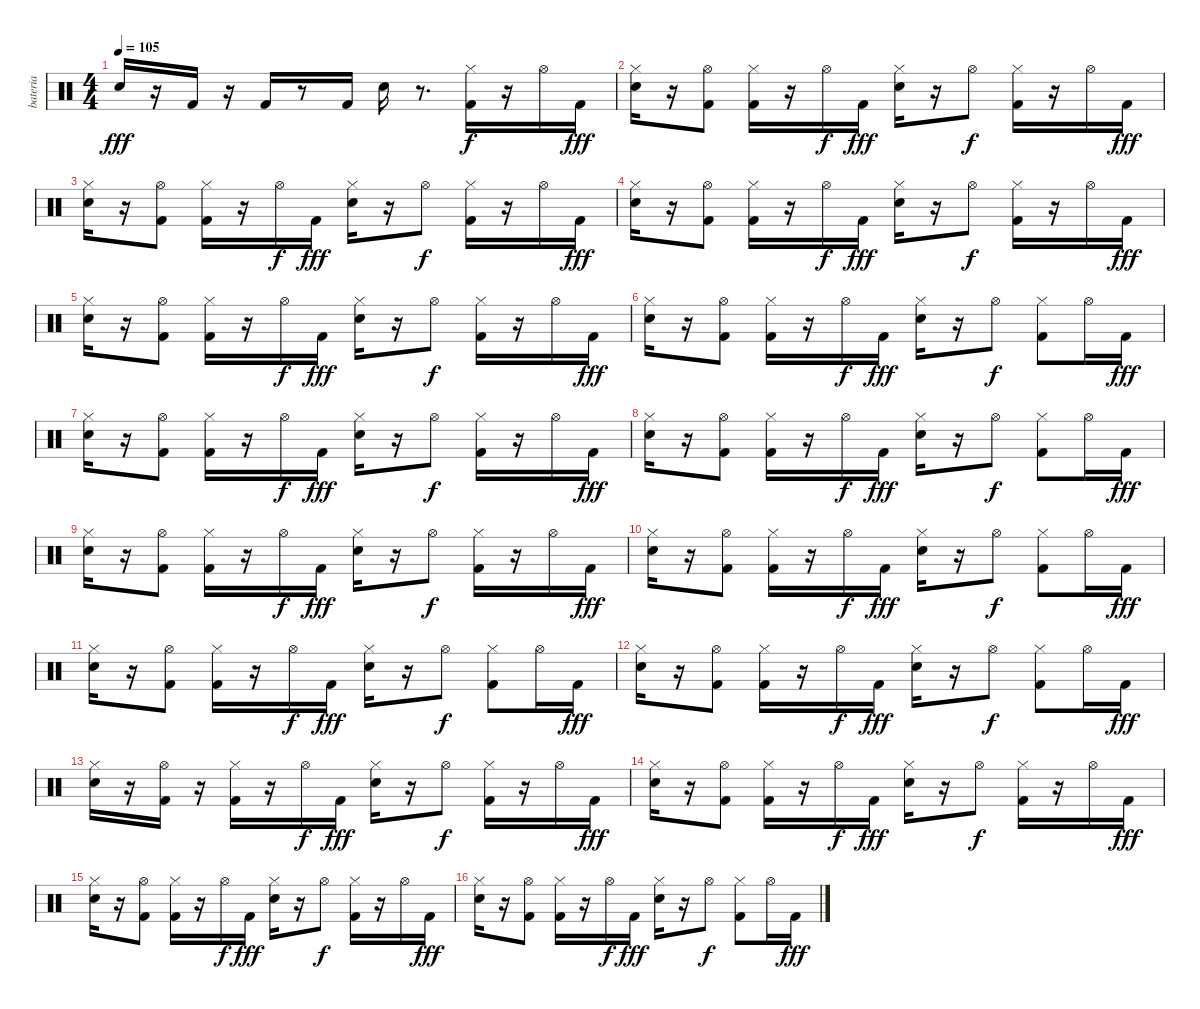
\track ("bateria" "bateria") {instrument percussion}
\staff {score}
\articulation defaults
\ts (4 4)
\tempo 105
\clef neutral
\ks c "Snare (hit) 2".16{dy fff}
r.16 "Kick (hit) 2".16 r.16 "Kick (hit) 2".16 r.8 "Kick (hit) 2".16 "Snare (hit) 2".16 r.8{d} ("Hi-Hat (closed)" "Kick (hit) 2").16{dy f} r.16 "Hi-Hat (open)".16 "Kick (hit) 2".16{dy fff} |
("Snare (hit) 2" "Hi-Hat (closed)").16 r.16 ("Kick (hit) 2" "Hi-Hat (open)").8 ("Kick (hit) 2" "Hi-Hat (closed)").16 r.16 "Hi-Hat (open)".16{dy f} "Kick (hit) 2".16{dy fff} ("Snare (hit) 2" "Hi-Hat (closed)").16 r.16 "Hi-Hat (open)".8{dy f} ("Hi-Hat (closed)" "Kick (hit) 2").16 r.16 "Hi-Hat (open)".16 "Kick (hit) 2".16{dy fff} |
("Snare (hit) 2" "Hi-Hat (closed)").16 r.16 ("Kick (hit) 2" "Hi-Hat (open)").8 ("Kick (hit) 2" "Hi-Hat (closed)").16 r.16 "Hi-Hat (open)".16{dy f} "Kick (hit) 2".16{dy fff} ("Snare (hit) 2" "Hi-Hat (closed)").16 r.16 "Hi-Hat (open)".8{dy f} ("Hi-Hat (closed)" "Kick (hit) 2").16 r.16 "Hi-Hat (open)".16 "Kick (hit) 2".16{dy fff} |
("Snare (hit) 2" "Hi-Hat (closed)").16 r.16 ("Kick (hit) 2" "Hi-Hat (open)").8 ("Kick (hit) 2" "Hi-Hat (closed)").16 r.16 "Hi-Hat (open)".16{dy f} "Kick (hit) 2".16{dy fff} ("Snare (hit) 2" "Hi-Hat (closed)").16 r.16 "Hi-Hat (open)".8{dy f} ("Hi-Hat (closed)" "Kick (hit) 2").16 r.16 "Hi-Hat (open)".16 "Kick (hit) 2".16{dy fff} |
("Snare (hit) 2" "Hi-Hat (closed)").16 r.16 ("Kick (hit) 2" "Hi-Hat (open)").8 ("Kick (hit) 2" "Hi-Hat (closed)").16 r.16 "Hi-Hat (open)".16{dy f} "Kick (hit) 2".16{dy fff} ("Snare (hit) 2" "Hi-Hat (closed)").16 r.16 "Hi-Hat (open)".8{dy f} ("Hi-Hat (closed)" "Kick (hit) 2").16 r.16 "Hi-Hat (open)".16 "Kick (hit) 2".16{dy fff} |
("Snare (hit) 2" "Hi-Hat (closed)").16 r.16 ("Kick (hit) 2" "Hi-Hat (open)").8 ("Kick (hit) 2" "Hi-Hat (closed)").16 r.16 "Hi-Hat (open)".16{dy f} "Kick (hit) 2".16{dy fff} ("Snare (hit) 2" "Hi-Hat (closed)").16 r.16 "Hi-Hat (open)".8{dy f} ("Hi-Hat (closed)" "Kick (hit) 2").8 "Hi-Hat (open)".16 "Kick (hit) 2".16{dy fff} |
("Snare (hit) 2" "Hi-Hat (closed)").16 r.16 ("Kick (hit) 2" "Hi-Hat (open)").8 ("Kick (hit) 2" "Hi-Hat (closed)").16 r.16 "Hi-Hat (open)".16{dy f} "Kick (hit) 2".16{dy fff} ("Snare (hit) 2" "Hi-Hat (closed)").16 r.16 "Hi-Hat (open)".8{dy f} ("Hi-Hat (closed)" "Kick (hit) 2").16 r.16 "Hi-Hat (open)".16 "Kick (hit) 2".16{dy fff} |
("Snare (hit) 2" "Hi-Hat (closed)").16 r.16 ("Kick (hit) 2" "Hi-Hat (open)").8 ("Kick (hit) 2" "Hi-Hat (closed)").16 r.16 "Hi-Hat (open)".16{dy f} "Kick (hit) 2".16{dy fff} ("Snare (hit) 2" "Hi-Hat (closed)").16 r.16 "Hi-Hat (open)".8{dy f} ("Hi-Hat (closed)" "Kick (hit) 2").8 "Hi-Hat (open)".16 "Kick (hit) 2".16{dy fff} |
("Snare (hit) 2" "Hi-Hat (closed)").16 r.16 ("Kick (hit) 2" "Hi-Hat (open)").8 ("Kick (hit) 2" "Hi-Hat (closed)").16 r.16 "Hi-Hat (open)".16{dy f} "Kick (hit) 2".16{dy fff} ("Snare (hit) 2" "Hi-Hat (closed)").16 r.16 "Hi-Hat (open)".8{dy f} ("Hi-Hat (closed)" "Kick (hit) 2").16 r.16 "Hi-Hat (open)".16 "Kick (hit) 2".16{dy fff} |
("Snare (hit) 2" "Hi-Hat (closed)").16 r.16 ("Kick (hit) 2" "Hi-Hat (open)").8 ("Kick (hit) 2" "Hi-Hat (closed)").16 r.16 "Hi-Hat (open)".16{dy f} "Kick (hit) 2".16{dy fff} ("Snare (hit) 2" "Hi-Hat (closed)").16 r.16 "Hi-Hat (open)".8{dy f} ("Hi-Hat (closed)" "Kick (hit) 2").8 "Hi-Hat (open)".16 "Kick (hit) 2".16{dy fff} |
("Snare (hit) 2" "Hi-Hat (closed)").16 r.16 ("Kick (hit) 2" "Hi-Hat (open)").8 ("Kick (hit) 2" "Hi-Hat (closed)").16 r.16 "Hi-Hat (open)".16{dy f} "Kick (hit) 2".16{dy fff} ("Snare (hit) 2" "Hi-Hat (closed)").16 r.16 "Hi-Hat (open)".8{dy f} ("Hi-Hat (closed)" "Kick (hit) 2").8 "Hi-Hat (open)".16 "Kick (hit) 2".16{dy fff} |
("Snare (hit) 2" "Hi-Hat (closed)").16 r.16 ("Kick (hit) 2" "Hi-Hat (open)").8 ("Kick (hit) 2" "Hi-Hat (closed)").16 r.16 "Hi-Hat (open)".16{dy f} "Kick (hit) 2".16{dy fff} ("Snare (hit) 2" "Hi-Hat (closed)").16 r.16 "Hi-Hat (open)".8{dy f} ("Hi-Hat (closed)" "Kick (hit) 2").8 "Hi-Hat (open)".16 "Kick (hit) 2".16{dy fff} |
("Snare (hit) 2" "Hi-Hat (closed)").16 r.16 ("Kick (hit) 2" "Hi-Hat (open)").16 r.16 ("Kick (hit) 2" "Hi-Hat (closed)").16 r.16 "Hi-Hat (open)".16{dy f} "Kick (hit) 2".16{dy fff} ("Snare (hit) 2" "Hi-Hat (closed)").16 r.16 "Hi-Hat (open)".8{dy f} ("Hi-Hat (closed)" "Kick (hit) 2").16 r.16 "Hi-Hat (open)".16 "Kick (hit) 2".16{dy fff} |
("Snare (hit) 2" "Hi-Hat (closed)").16 r.16 ("Kick (hit) 2" "Hi-Hat (open)").8 ("Kick (hit) 2" "Hi-Hat (closed)").16 r.16 "Hi-Hat (open)".16{dy f} "Kick (hit) 2".16{dy fff} ("Snare (hit) 2" "Hi-Hat (closed)").16 r.16 "Hi-Hat (open)".8{dy f} ("Hi-Hat (closed)" "Kick (hit) 2").16 r.16 "Hi-Hat (open)".16 "Kick (hit) 2".16{dy fff} |
("Snare (hit) 2" "Hi-Hat (closed)").16 r.16 ("Kick (hit) 2" "Hi-Hat (open)").8 ("Kick (hit) 2" "Hi-Hat (closed)").16 r.16 "Hi-Hat (open)".16{dy f} "Kick (hit) 2".16{dy fff} ("Snare (hit) 2" "Hi-Hat (closed)").16 r.16 "Hi-Hat (open)".8{dy f} ("Hi-Hat (closed)" "Kick (hit) 2").16 r.16 "Hi-Hat (open)".16 "Kick (hit) 2".16{dy fff} |
("Snare (hit) 2" "Hi-Hat (closed)").16 r.16 ("Kick (hit) 2" "Hi-Hat (open)").8 ("Kick (hit) 2" "Hi-Hat (closed)").16 r.16 "Hi-Hat (open)".16{dy f} "Kick (hit) 2".16{dy fff} ("Snare (hit) 2" "Hi-Hat (closed)").16 r.16 "Hi-Hat (open)".8{dy f} ("Hi-Hat (closed)" "Kick (hit) 2").8 "Hi-Hat (open)".16 "Kick (hit) 2".16{dy fff}
